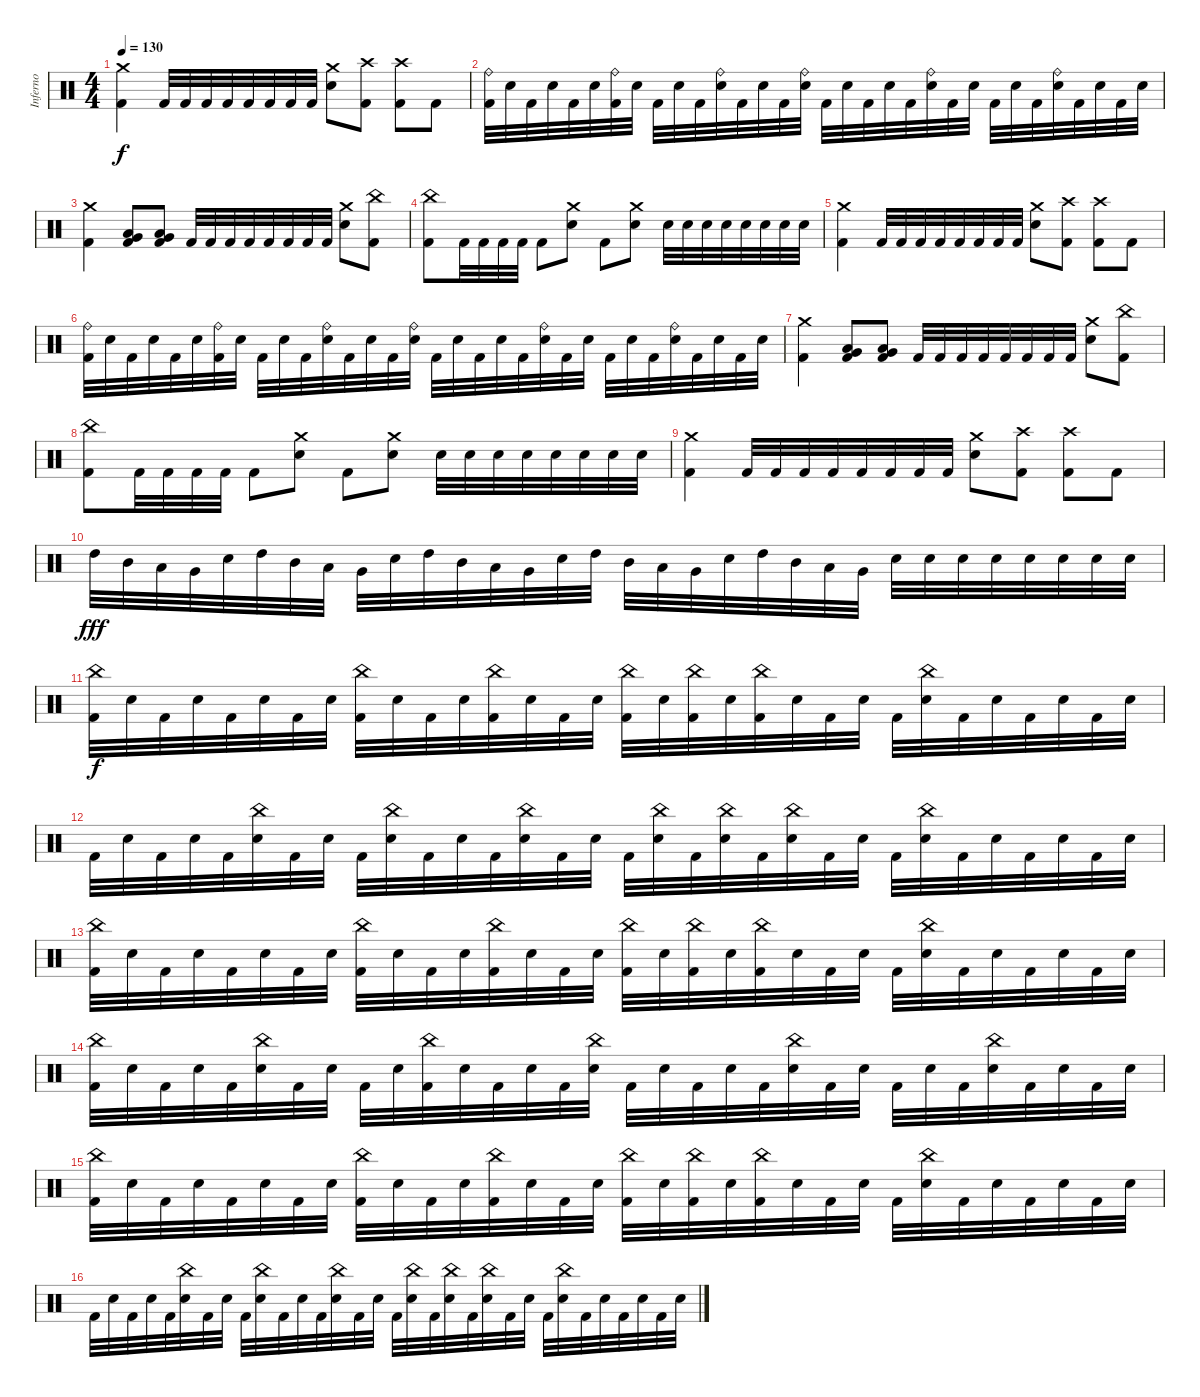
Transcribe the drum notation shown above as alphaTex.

\track ("Inferno" "Inferno") {instrument percussion}
\staff {score}
\articulation defaults
\ts (4 4)
\tempo 130
\clef neutral
\ks c
("Crash medium (hit)" "Kick (hit) 2").4{dy f} "Kick (hit) 2".32 "Kick (hit) 2".32 "Kick (hit) 2".32 "Kick (hit) 2".32 "Kick (hit) 2".32 "Kick (hit) 2".32 "Kick (hit) 2".32 "Kick (hit) 2".32 ("Crash medium (hit)" "Snare (hit) 2").8 ("Crash high (hit)" "Kick (hit) 2").8 ("Crash high (hit)" "Kick (hit) 2").8 "Kick (hit) 2".8 |
("Ride (bell)" "Kick (hit) 2").32 "Snare (hit) 2".32 "Kick (hit) 2".32 "Snare (hit) 2".32 "Kick (hit) 2".32 "Snare (hit) 2".32 ("Ride (bell)" "Kick (hit) 2").32 "Snare (hit) 2".32 "Kick (hit) 2".32 "Snare (hit) 2".32 "Kick (hit) 2".32 ("Ride (bell)" "Snare (hit) 2").32 "Kick (hit) 2".32 "Snare (hit) 2".32 "Kick (hit) 2".32 ("Ride (bell)" "Snare (hit) 2").32 "Kick (hit) 2".32 "Snare (hit) 2".32 "Kick (hit) 2".32 "Snare (hit) 2".32 "Kick (hit) 2".32 ("Ride (bell)" "Snare (hit) 2").32 "Kick (hit) 2".32 "Snare (hit) 2".32 "Kick (hit) 2".32 "Snare (hit) 2".32 "Kick (hit) 2".32 ("Ride (bell)" "Snare (hit) 2").32 "Kick (hit) 2".32 "Snare (hit) 2".32 "Kick (hit) 2".32 "Snare (hit) 2".32 |
("Crash medium (hit)" "Kick (hit) 2").4 ("Very Low Tom (hit)" "Low Floor Tom (hit)" "Kick (hit) 2").8 ("Very Low Tom (hit)" "Low Floor Tom (hit)" "Kick (hit) 2").8 "Kick (hit) 2".32 "Kick (hit) 2".32 "Kick (hit) 2".32 "Kick (hit) 2".32 "Kick (hit) 2".32 "Kick (hit) 2".32 "Kick (hit) 2".32 "Kick (hit) 2".32 ("Crash medium (hit)" "Snare (hit) 2").8 ("China (hit)" "Kick (hit) 2").8 |
("China (hit)" "Kick (hit) 2").8 "Kick (hit) 2".32 "Kick (hit) 2".32 "Kick (hit) 2".32 "Kick (hit) 2".32 "Kick (hit) 2".8 ("Crash medium (hit)" "Snare (hit) 2").8 "Kick (hit) 2".8 ("Crash medium (hit)" "Snare (hit) 2").8 "Snare (hit) 2".32 "Snare (hit) 2".32 "Snare (hit) 2".32 "Snare (hit) 2".32 "Snare (hit) 2".32 "Snare (hit) 2".32 "Snare (hit) 2".32 "Snare (hit) 2".32 |
("Crash medium (hit)" "Kick (hit) 2").4 "Kick (hit) 2".32 "Kick (hit) 2".32 "Kick (hit) 2".32 "Kick (hit) 2".32 "Kick (hit) 2".32 "Kick (hit) 2".32 "Kick (hit) 2".32 "Kick (hit) 2".32 ("Crash medium (hit)" "Snare (hit) 2").8 ("Crash high (hit)" "Kick (hit) 2").8 ("Crash high (hit)" "Kick (hit) 2").8 "Kick (hit) 2".8 |
("Ride (bell)" "Kick (hit) 2").32 "Snare (hit) 2".32 "Kick (hit) 2".32 "Snare (hit) 2".32 "Kick (hit) 2".32 "Snare (hit) 2".32 ("Ride (bell)" "Kick (hit) 2").32 "Snare (hit) 2".32 "Kick (hit) 2".32 "Snare (hit) 2".32 "Kick (hit) 2".32 ("Ride (bell)" "Snare (hit) 2").32 "Kick (hit) 2".32 "Snare (hit) 2".32 "Kick (hit) 2".32 ("Ride (bell)" "Snare (hit) 2").32 "Kick (hit) 2".32 "Snare (hit) 2".32 "Kick (hit) 2".32 "Snare (hit) 2".32 "Kick (hit) 2".32 ("Ride (bell)" "Snare (hit) 2").32 "Kick (hit) 2".32 "Snare (hit) 2".32 "Kick (hit) 2".32 "Snare (hit) 2".32 "Kick (hit) 2".32 ("Ride (bell)" "Snare (hit) 2").32 "Kick (hit) 2".32 "Snare (hit) 2".32 "Kick (hit) 2".32 "Snare (hit) 2".32 |
("Crash medium (hit)" "Kick (hit) 2").4 ("Very Low Tom (hit)" "Low Floor Tom (hit)" "Kick (hit) 2").8 ("Very Low Tom (hit)" "Low Floor Tom (hit)" "Kick (hit) 2").8 "Kick (hit) 2".32 "Kick (hit) 2".32 "Kick (hit) 2".32 "Kick (hit) 2".32 "Kick (hit) 2".32 "Kick (hit) 2".32 "Kick (hit) 2".32 "Kick (hit) 2".32 ("Crash medium (hit)" "Snare (hit) 2").8 ("China (hit)" "Kick (hit) 2").8 |
("China (hit)" "Kick (hit) 2").8 "Kick (hit) 2".32 "Kick (hit) 2".32 "Kick (hit) 2".32 "Kick (hit) 2".32 "Kick (hit) 2".8 ("Crash medium (hit)" "Snare (hit) 2").8 "Kick (hit) 2".8 ("Crash medium (hit)" "Snare (hit) 2").8 "Snare (hit) 2".32 "Snare (hit) 2".32 "Snare (hit) 2".32 "Snare (hit) 2".32 "Snare (hit) 2".32 "Snare (hit) 2".32 "Snare (hit) 2".32 "Snare (hit) 2".32 |
("Crash medium (hit)" "Kick (hit) 2").4 "Kick (hit) 2".32 "Kick (hit) 2".32 "Kick (hit) 2".32 "Kick (hit) 2".32 "Kick (hit) 2".32 "Kick (hit) 2".32 "Kick (hit) 2".32 "Kick (hit) 2".32 ("Crash medium (hit)" "Snare (hit) 2").8 ("Crash high (hit)" "Kick (hit) 2").8 ("Crash high (hit)" "Kick (hit) 2").8 "Kick (hit) 2".8 |
"High Tom (hit)".32{dy fff} "Mid Tom (hit)".32 "Low Tom (hit)".32 "Very Low Tom (hit)".32 "Snare (hit) 2".32 "High Tom (hit)".32 "Mid Tom (hit)".32 "Low Tom (hit)".32 "Very Low Tom (hit)".32 "Snare (hit) 2".32 "High Tom (hit)".32 "Mid Tom (hit)".32 "Low Tom (hit)".32 "Very Low Tom (hit)".32 "Snare (hit) 2".32 "High Tom (hit)".32 "Mid Tom (hit)".32 "Low Tom (hit)".32 "Very Low Tom (hit)".32 "Snare (hit) 2".32 "High Tom (hit)".32 "Mid Tom (hit)".32 "Low Tom (hit)".32 "Very Low Tom (hit)".32 "Snare (hit) 2".32 "Snare (hit) 2".32 "Snare (hit) 2".32 "Snare (hit) 2".32 "Snare (hit) 2".32 "Snare (hit) 2".32 "Snare (hit) 2".32 "Snare (hit) 2".32 |
("China (hit)" "Kick (hit) 2").32{dy f} "Snare (hit) 2".32 "Kick (hit) 2".32 "Snare (hit) 2".32 "Kick (hit) 2".32 "Snare (hit) 2".32 "Kick (hit) 2".32 "Snare (hit) 2".32 ("China (hit)" "Kick (hit) 2").32 "Snare (hit) 2".32 "Kick (hit) 2".32 "Snare (hit) 2".32 ("China (hit)" "Kick (hit) 2").32 "Snare (hit) 2".32 "Kick (hit) 2".32 "Snare (hit) 2".32 ("China (hit)" "Kick (hit) 2").32 "Snare (hit) 2".32 ("China (hit)" "Kick (hit) 2").32 "Snare (hit) 2".32 ("China (hit)" "Kick (hit) 2").32 "Snare (hit) 2".32 "Kick (hit) 2".32 "Snare (hit) 2".32 "Kick (hit) 2".32 ("China (hit)" "Snare (hit) 2").32 "Kick (hit) 2".32 "Snare (hit) 2".32 "Kick (hit) 2".32 "Snare (hit) 2".32 "Kick (hit) 2".32 "Snare (hit) 2".32 |
"Kick (hit) 2".32 "Snare (hit) 2".32 "Kick (hit) 2".32 "Snare (hit) 2".32 "Kick (hit) 2".32 ("China (hit)" "Snare (hit) 2").32 "Kick (hit) 2".32 "Snare (hit) 2".32 "Kick (hit) 2".32 ("China (hit)" "Snare (hit) 2").32 "Kick (hit) 2".32 "Snare (hit) 2".32 "Kick (hit) 2".32 ("China (hit)" "Snare (hit) 2").32 "Kick (hit) 2".32 "Snare (hit) 2".32 "Kick (hit) 2".32 ("China (hit)" "Snare (hit) 2").32 "Kick (hit) 2".32 ("China (hit)" "Snare (hit) 2").32 "Kick (hit) 2".32 ("China (hit)" "Snare (hit) 2").32 "Kick (hit) 2".32 "Snare (hit) 2".32 "Kick (hit) 2".32 ("China (hit)" "Snare (hit) 2").32 "Kick (hit) 2".32 "Snare (hit) 2".32 "Kick (hit) 2".32 "Snare (hit) 2".32 "Kick (hit) 2".32 "Snare (hit) 2".32 |
("China (hit)" "Kick (hit) 2").32 "Snare (hit) 2".32 "Kick (hit) 2".32 "Snare (hit) 2".32 "Kick (hit) 2".32 "Snare (hit) 2".32 "Kick (hit) 2".32 "Snare (hit) 2".32 ("China (hit)" "Kick (hit) 2").32 "Snare (hit) 2".32 "Kick (hit) 2".32 "Snare (hit) 2".32 ("China (hit)" "Kick (hit) 2").32 "Snare (hit) 2".32 "Kick (hit) 2".32 "Snare (hit) 2".32 ("China (hit)" "Kick (hit) 2").32 "Snare (hit) 2".32 ("China (hit)" "Kick (hit) 2").32 "Snare (hit) 2".32 ("China (hit)" "Kick (hit) 2").32 "Snare (hit) 2".32 "Kick (hit) 2".32 "Snare (hit) 2".32 "Kick (hit) 2".32 ("China (hit)" "Snare (hit) 2").32 "Kick (hit) 2".32 "Snare (hit) 2".32 "Kick (hit) 2".32 "Snare (hit) 2".32 "Kick (hit) 2".32 "Snare (hit) 2".32 |
("China (hit)" "Kick (hit) 2").32 "Snare (hit) 2".32 "Kick (hit) 2".32 "Snare (hit) 2".32 "Kick (hit) 2".32 ("China (hit)" "Snare (hit) 2").32 "Kick (hit) 2".32 "Snare (hit) 2".32 "Kick (hit) 2".32 "Snare (hit) 2".32 ("China (hit)" "Kick (hit) 2").32 "Snare (hit) 2".32 "Kick (hit) 2".32 "Snare (hit) 2".32 "Kick (hit) 2".32 ("China (hit)" "Snare (hit) 2").32 "Kick (hit) 2".32 "Snare (hit) 2".32 "Kick (hit) 2".32 "Snare (hit) 2".32 "Kick (hit) 2".32 ("China (hit)" "Snare (hit) 2").32 "Kick (hit) 2".32 "Snare (hit) 2".32 "Kick (hit) 2".32 "Snare (hit) 2".32 "Kick (hit) 2".32 ("China (hit)" "Snare (hit) 2").32 "Kick (hit) 2".32 "Snare (hit) 2".32 "Kick (hit) 2".32 "Snare (hit) 2".32 |
("China (hit)" "Kick (hit) 2").32 "Snare (hit) 2".32 "Kick (hit) 2".32 "Snare (hit) 2".32 "Kick (hit) 2".32 "Snare (hit) 2".32 "Kick (hit) 2".32 "Snare (hit) 2".32 ("China (hit)" "Kick (hit) 2").32 "Snare (hit) 2".32 "Kick (hit) 2".32 "Snare (hit) 2".32 ("China (hit)" "Kick (hit) 2").32 "Snare (hit) 2".32 "Kick (hit) 2".32 "Snare (hit) 2".32 ("China (hit)" "Kick (hit) 2").32 "Snare (hit) 2".32 ("China (hit)" "Kick (hit) 2").32 "Snare (hit) 2".32 ("China (hit)" "Kick (hit) 2").32 "Snare (hit) 2".32 "Kick (hit) 2".32 "Snare (hit) 2".32 "Kick (hit) 2".32 ("China (hit)" "Snare (hit) 2").32 "Kick (hit) 2".32 "Snare (hit) 2".32 "Kick (hit) 2".32 "Snare (hit) 2".32 "Kick (hit) 2".32 "Snare (hit) 2".32 |
"Kick (hit) 2".32 "Snare (hit) 2".32 "Kick (hit) 2".32 "Snare (hit) 2".32 "Kick (hit) 2".32 ("China (hit)" "Snare (hit) 2").32 "Kick (hit) 2".32 "Snare (hit) 2".32 "Kick (hit) 2".32 ("China (hit)" "Snare (hit) 2").32 "Kick (hit) 2".32 "Snare (hit) 2".32 "Kick (hit) 2".32 ("China (hit)" "Snare (hit) 2").32 "Kick (hit) 2".32 "Snare (hit) 2".32 "Kick (hit) 2".32 ("China (hit)" "Snare (hit) 2").32 "Kick (hit) 2".32 ("China (hit)" "Snare (hit) 2").32 "Kick (hit) 2".32 ("China (hit)" "Snare (hit) 2").32 "Kick (hit) 2".32 "Snare (hit) 2".32 "Kick (hit) 2".32 ("China (hit)" "Snare (hit) 2").32 "Kick (hit) 2".32 "Snare (hit) 2".32 "Kick (hit) 2".32 "Snare (hit) 2".32 "Kick (hit) 2".32 "Snare (hit) 2".32
